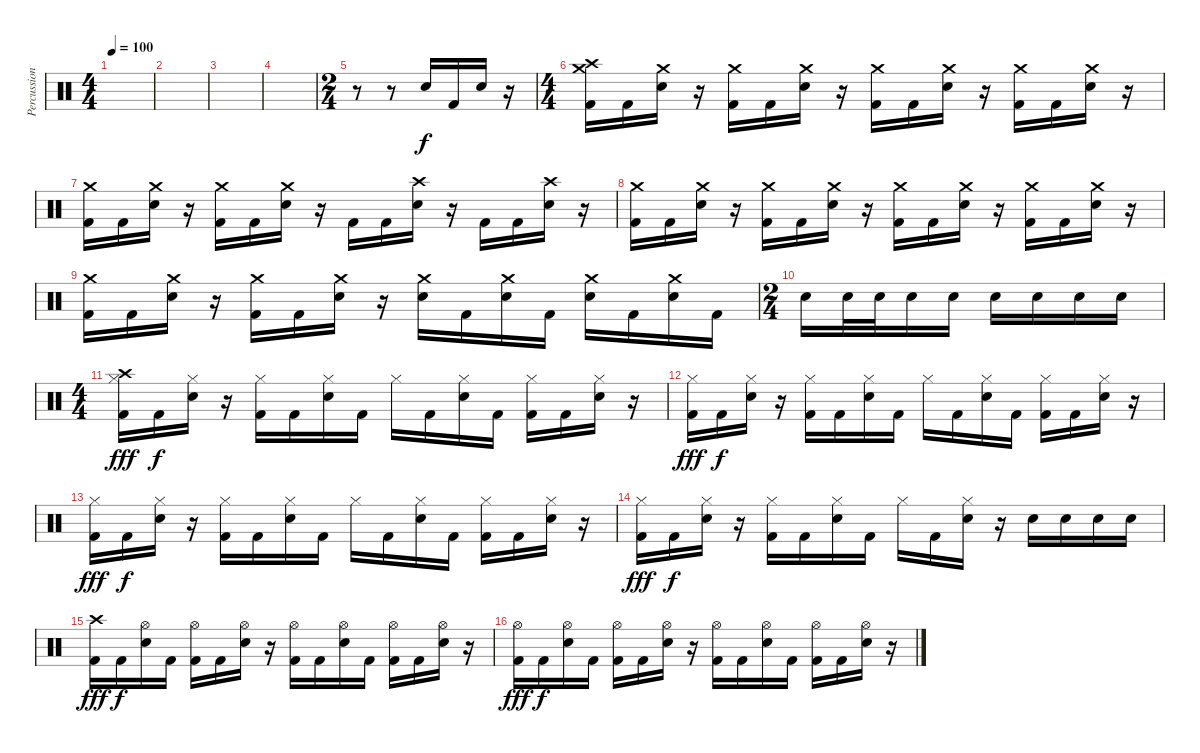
\track ("Percussion" "Percussion") {instrument percussion}
\staff {score}
\articulation defaults
\ts (4 4)
\tempo 100
\clef neutral
\ks c
|
|
|
|
\ts (2 4)
r.8 r.8 "Snare (hit) 2".16 "Kick (hit) 2".16 "Snare (hit) 2".16 r.16 |
\ts (4 4)
("Crash high (hit)" "Crash medium (hit)" "Kick (hit) 2").16 "Kick (hit) 2".16 ("Crash medium (hit)" "Snare (hit) 2").16 r.16 ("Crash medium (hit)" "Kick (hit) 2").16 "Kick (hit) 2".16 ("Crash medium (hit)" "Snare (hit) 2").16 r.16 ("Crash medium (hit)" "Kick (hit) 2").16 "Kick (hit) 2".16 ("Crash medium (hit)" "Snare (hit) 2").16 r.16 ("Crash medium (hit)" "Kick (hit) 2").16 "Kick (hit) 2".16 ("Crash medium (hit)" "Snare (hit) 2").16 r.16 |
("Crash medium (hit)" "Kick (hit) 2").16 "Kick (hit) 2".16 ("Crash medium (hit)" "Snare (hit) 2").16 r.16 ("Crash medium (hit)" "Kick (hit) 2").16 "Kick (hit) 2".16 ("Crash medium (hit)" "Snare (hit) 2").16 r.16 "Kick (hit) 2".16 "Kick (hit) 2".16 ("Crash high (hit)" "Snare (hit) 2").16 r.16 "Kick (hit) 2".16 "Kick (hit) 2".16 ("Crash high (hit)" "Snare (hit) 2").16 r.16 |
("Crash medium (hit)" "Kick (hit) 2").16 "Kick (hit) 2".16 ("Crash medium (hit)" "Snare (hit) 2").16 r.16 ("Crash medium (hit)" "Kick (hit) 2").16 "Kick (hit) 2".16 ("Crash medium (hit)" "Snare (hit) 2").16 r.16 ("Crash medium (hit)" "Kick (hit) 2").16 "Kick (hit) 2".16 ("Crash medium (hit)" "Snare (hit) 2").16 r.16 ("Crash medium (hit)" "Kick (hit) 2").16 "Kick (hit) 2".16 ("Crash medium (hit)" "Snare (hit) 2").16 r.16 |
("Crash medium (hit)" "Kick (hit) 2").16 "Kick (hit) 2".16 ("Crash medium (hit)" "Snare (hit) 2").16 r.16 ("Crash medium (hit)" "Kick (hit) 2").16 "Kick (hit) 2".16 ("Crash medium (hit)" "Snare (hit) 2").16 r.16 ("Crash medium (hit)" "Electric Snare (hit)").16 "Kick (hit) 2".16 ("Crash medium (hit)" "Electric Snare (hit)").16 "Kick (hit) 2".16 ("Crash medium (hit)" "Electric Snare (hit)").16 "Kick (hit) 2".16 ("Crash medium (hit)" "Electric Snare (hit)").16 "Kick (hit) 2".16 |
\ts (2 4)
"Electric Snare (hit)".16 "Electric Snare (hit)".32 "Electric Snare (hit)".32 "Electric Snare (hit)".16 "Electric Snare (hit)".16 "Electric Snare (hit)".16 "Electric Snare (hit)".16 "Electric Snare (hit)".16 "Electric Snare (hit)".16 |
\ts (4 4)
("Crash high (hit)" "Hi-Hat (closed)" "Kick (hit) 2").16{dy fff} "Kick (hit) 2".16{dy f} ("Hi-Hat (closed)" "Snare (hit) 2").16 r.16 ("Hi-Hat (closed)" "Kick (hit) 2").16 "Kick (hit) 2".16 ("Hi-Hat (closed)" "Snare (hit) 2").16 "Kick (hit) 2".16 "Hi-Hat (closed)".16 "Kick (hit) 2".16 ("Hi-Hat (closed)" "Snare (hit) 2").16 "Kick (hit) 2".16 ("Hi-Hat (closed)" "Kick (hit) 2").16 "Kick (hit) 2".16 ("Hi-Hat (closed)" "Snare (hit) 2").16 r.16 |
("Hi-Hat (closed)" "Kick (hit) 2").16{dy fff} "Kick (hit) 2".16{dy f} ("Hi-Hat (closed)" "Snare (hit) 2").16 r.16 ("Hi-Hat (closed)" "Kick (hit) 2").16 "Kick (hit) 2".16 ("Hi-Hat (closed)" "Snare (hit) 2").16 "Kick (hit) 2".16 "Hi-Hat (closed)".16 "Kick (hit) 2".16 ("Hi-Hat (closed)" "Snare (hit) 2").16 "Kick (hit) 2".16 ("Hi-Hat (closed)" "Kick (hit) 2").16 "Kick (hit) 2".16 ("Hi-Hat (closed)" "Snare (hit) 2").16 r.16 |
("Hi-Hat (closed)" "Kick (hit) 2").16{dy fff} "Kick (hit) 2".16{dy f} ("Hi-Hat (closed)" "Snare (hit) 2").16 r.16 ("Hi-Hat (closed)" "Kick (hit) 2").16 "Kick (hit) 2".16 ("Hi-Hat (closed)" "Snare (hit) 2").16 "Kick (hit) 2".16 "Hi-Hat (closed)".16 "Kick (hit) 2".16 ("Hi-Hat (closed)" "Snare (hit) 2").16 "Kick (hit) 2".16 ("Hi-Hat (closed)" "Kick (hit) 2").16 "Kick (hit) 2".16 ("Hi-Hat (closed)" "Snare (hit) 2").16 r.16 |
("Hi-Hat (closed)" "Kick (hit) 2").16{dy fff} "Kick (hit) 2".16{dy f} ("Hi-Hat (closed)" "Snare (hit) 2").16 r.16 ("Hi-Hat (closed)" "Kick (hit) 2").16 "Kick (hit) 2".16 ("Hi-Hat (closed)" "Snare (hit) 2").16 "Kick (hit) 2".16 "Hi-Hat (closed)".16 "Kick (hit) 2".16 ("Hi-Hat (closed)" "Snare (hit) 2").16 r.16 "Snare (hit) 2".16 "Snare (hit) 2".16 "Snare (hit) 2".16 "Snare (hit) 2".16 |
("Crash high (hit)" "Kick (hit) 2").16{dy fff} "Kick (hit) 2".16{dy f} ("Hi-Hat (open)" "Electric Snare (hit)").16 "Kick (hit) 2".16 ("Hi-Hat (open)" "Kick (hit) 2").16 "Kick (hit) 2".16 ("Hi-Hat (open)" "Electric Snare (hit)").16 r.16 ("Hi-Hat (open)" "Kick (hit) 2").16 "Kick (hit) 2".16 ("Hi-Hat (open)" "Electric Snare (hit)").16 "Kick (hit) 2".16 ("Hi-Hat (open)" "Kick (hit) 2").16 "Kick (hit) 2".16 ("Hi-Hat (open)" "Electric Snare (hit)").16 r.16 |
("Hi-Hat (open)" "Kick (hit) 2").16{dy fff} "Kick (hit) 2".16{dy f} ("Hi-Hat (open)" "Electric Snare (hit)").16 "Kick (hit) 2".16 ("Hi-Hat (open)" "Kick (hit) 2").16 "Kick (hit) 2".16 ("Hi-Hat (open)" "Electric Snare (hit)").16 r.16 ("Hi-Hat (open)" "Kick (hit) 2").16 "Kick (hit) 2".16 ("Hi-Hat (open)" "Electric Snare (hit)").16 "Kick (hit) 2".16 ("Hi-Hat (open)" "Kick (hit) 2").16 "Kick (hit) 2".16 ("Hi-Hat (open)" "Electric Snare (hit)").16 r.16
